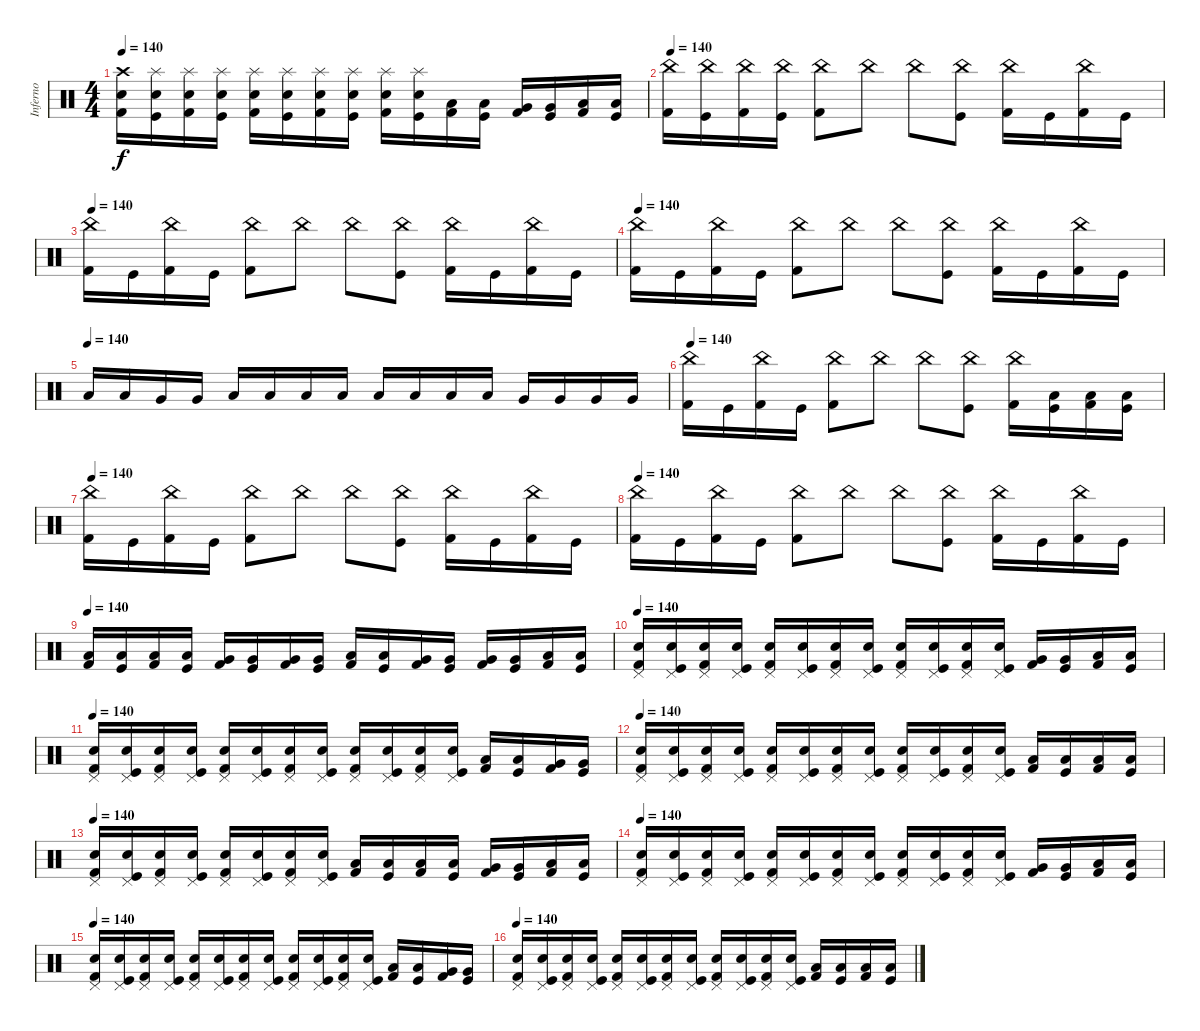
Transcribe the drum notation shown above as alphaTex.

\track ("Inferno" "Inferno") {instrument percussion}
\staff {score}
\articulation defaults
\ts (4 4)
\tempo 140
\clef neutral
\ks c
("Crash high (hit)" "Electric Snare (hit)" "Kick (hit) 2").16{dy f} ("Splash (hit)" "Electric Snare (hit)" "Kick (hit)").16 ("Splash (hit)" "Electric Snare (hit)" "Kick (hit) 2").16 ("Splash (hit)" "Electric Snare (hit)" "Kick (hit)").16 ("Splash (hit)" "Electric Snare (hit)" "Kick (hit) 2").16 ("Splash (hit)" "Electric Snare (hit)" "Kick (hit)").16 ("Splash (hit)" "Electric Snare (hit)" "Kick (hit) 2").16 ("Splash (hit)" "Electric Snare (hit)" "Kick (hit)").16 ("Splash (hit)" "Electric Snare (hit)" "Kick (hit) 2").16 ("Splash (hit)" "Electric Snare (hit)" "Kick (hit)").16 ("Low Tom (hit)" "Kick (hit) 2").16 ("Low Tom (hit)" "Kick (hit)").16 ("Very Low Tom (hit)" "Kick (hit) 2").16 ("Very Low Tom (hit)" "Kick (hit)").16 ("Low Floor Tom (hit)" "Kick (hit) 2").16 ("Low Floor Tom (hit)" "Kick (hit)").16 |
\tempo 140
("China (hit)" "Kick (hit) 2").16 ("China (hit)" "Kick (hit)").16 ("China (hit)" "Kick (hit) 2").16 ("China (hit)" "Kick (hit)").16 ("China (hit)" "Kick (hit) 2").8 "China (hit)".8 "China (hit)".8 ("China (hit)" "Kick (hit)").8 ("China (hit)" "Kick (hit) 2").16 "Kick (hit)".16 ("China (hit)" "Kick (hit) 2").16 "Kick (hit)".16 |
\tempo 140
("China (hit)" "Kick (hit) 2").16 "Kick (hit)".16 ("China (hit)" "Kick (hit) 2").16 "Kick (hit)".16 ("China (hit)" "Kick (hit) 2").8 "China (hit)".8 "China (hit)".8 ("China (hit)" "Kick (hit)").8 ("China (hit)" "Kick (hit) 2").16 "Kick (hit)".16 ("China (hit)" "Kick (hit) 2").16 "Kick (hit)".16 |
\tempo 140
("China (hit)" "Kick (hit) 2").16 "Kick (hit)".16 ("China (hit)" "Kick (hit) 2").16 "Kick (hit)".16 ("China (hit)" "Kick (hit) 2").8 "China (hit)".8 "China (hit)".8 ("China (hit)" "Kick (hit)").8 ("China (hit)" "Kick (hit) 2").16 "Kick (hit)".16 ("China (hit)" "Kick (hit) 2").16 "Kick (hit)".16 |
\tempo (140)
"Low Tom (hit)".16 "Low Tom (hit)".16 "Very Low Tom (hit)".16 "Very Low Tom (hit)".16 "Low Floor Tom (hit)".16 "Low Floor Tom (hit)".16 "Low Floor Tom (hit)".16 "Low Floor Tom (hit)".16 "Low Tom (hit)".16 "Low Tom (hit)".16 "Low Tom (hit)".16 "Low Tom (hit)".16 "Very Low Tom (hit)".16 "Very Low Tom (hit)".16 "Very Low Tom (hit)".16 "Very Low Tom (hit)".16 |
\tempo 140
("China (hit)" "Kick (hit) 2").16 "Kick (hit)".16 ("China (hit)" "Kick (hit) 2").16 "Kick (hit)".16 ("China (hit)" "Kick (hit) 2").8 "China (hit)".8 "China (hit)".8 ("China (hit)" "Kick (hit)").8 ("China (hit)" "Kick (hit) 2").16 ("Low Tom (hit)" "Kick (hit)").16 ("Low Tom (hit)" "Kick (hit) 2").16 ("Low Tom (hit)" "Kick (hit)").16 |
\tempo 140
("China (hit)" "Kick (hit) 2").16 "Kick (hit)".16 ("China (hit)" "Kick (hit) 2").16 "Kick (hit)".16 ("China (hit)" "Kick (hit) 2").8 "China (hit)".8 "China (hit)".8 ("China (hit)" "Kick (hit)").8 ("China (hit)" "Kick (hit) 2").16 "Kick (hit)".16 ("China (hit)" "Kick (hit) 2").16 "Kick (hit)".16 |
\tempo 140
("China (hit)" "Kick (hit) 2").16 "Kick (hit)".16 ("China (hit)" "Kick (hit) 2").16 "Kick (hit)".16 ("China (hit)" "Kick (hit) 2").8 "China (hit)".8 "China (hit)".8 ("China (hit)" "Kick (hit)").8 ("China (hit)" "Kick (hit) 2").16 "Kick (hit)".16 ("China (hit)" "Kick (hit) 2").16 "Kick (hit)".16 |
\tempo 140
("Low Tom (hit)" "Kick (hit) 2").16 ("Low Tom (hit)" "Kick (hit)").16 ("Low Tom (hit)" "Kick (hit) 2").16 ("Low Tom (hit)" "Kick (hit)").16 ("Very Low Tom (hit)" "Kick (hit) 2").16 ("Very Low Tom (hit)" "Kick (hit)").16 ("Very Low Tom (hit)" "Kick (hit) 2").16 ("Very Low Tom (hit)" "Kick (hit)").16 ("Low Tom (hit)" "Kick (hit) 2").16 ("Low Tom (hit)" "Kick (hit)").16 ("Very Low Tom (hit)" "Kick (hit) 2").16 ("Very Low Tom (hit)" "Kick (hit)").16 ("Very Low Tom (hit)" "Kick (hit) 2").16 ("Very Low Tom (hit)" "Kick (hit)").16 ("Low Floor Tom (hit)" "Kick (hit) 2").16 ("Low Floor Tom (hit)" "Kick (hit)").16 |
\tempo 140
("Pedal Hi-Hat (hit)" "Electric Snare (hit)" "Kick (hit) 2").16 ("Pedal Hi-Hat (hit)" "Electric Snare (hit)" "Kick (hit)").16 ("Pedal Hi-Hat (hit)" "Electric Snare (hit)" "Kick (hit) 2").16 ("Pedal Hi-Hat (hit)" "Electric Snare (hit)" "Kick (hit)").16 ("Pedal Hi-Hat (hit)" "Electric Snare (hit)" "Kick (hit) 2").16 ("Pedal Hi-Hat (hit)" "Electric Snare (hit)" "Kick (hit)").16 ("Pedal Hi-Hat (hit)" "Electric Snare (hit)" "Kick (hit) 2").16 ("Pedal Hi-Hat (hit)" "Electric Snare (hit)" "Kick (hit)").16 ("Pedal Hi-Hat (hit)" "Electric Snare (hit)" "Kick (hit) 2").16 ("Pedal Hi-Hat (hit)" "Electric Snare (hit)" "Kick (hit)").16 ("Pedal Hi-Hat (hit)" "Electric Snare (hit)" "Kick (hit) 2").16 ("Pedal Hi-Hat (hit)" "Electric Snare (hit)" "Kick (hit)").16 ("Very Low Tom (hit)" "Kick (hit) 2").16 ("Very Low Tom (hit)" "Kick (hit)").16 ("Low Floor Tom (hit)" "Kick (hit) 2").16 ("Low Floor Tom (hit)" "Kick (hit)").16 |
\tempo 140
("Pedal Hi-Hat (hit)" "Electric Snare (hit)" "Kick (hit) 2").16 ("Pedal Hi-Hat (hit)" "Electric Snare (hit)" "Kick (hit)").16 ("Pedal Hi-Hat (hit)" "Electric Snare (hit)" "Kick (hit) 2").16 ("Pedal Hi-Hat (hit)" "Electric Snare (hit)" "Kick (hit)").16 ("Pedal Hi-Hat (hit)" "Electric Snare (hit)" "Kick (hit) 2").16 ("Pedal Hi-Hat (hit)" "Electric Snare (hit)" "Kick (hit)").16 ("Pedal Hi-Hat (hit)" "Electric Snare (hit)" "Kick (hit) 2").16 ("Pedal Hi-Hat (hit)" "Electric Snare (hit)" "Kick (hit)").16 ("Pedal Hi-Hat (hit)" "Electric Snare (hit)" "Kick (hit) 2").16 ("Pedal Hi-Hat (hit)" "Electric Snare (hit)" "Kick (hit)").16 ("Pedal Hi-Hat (hit)" "Electric Snare (hit)" "Kick (hit) 2").16 ("Pedal Hi-Hat (hit)" "Electric Snare (hit)" "Kick (hit)").16 ("Low Tom (hit)" "Kick (hit) 2").16 ("Low Tom (hit)" "Kick (hit)").16 ("Very Low Tom (hit)" "Kick (hit) 2").16 ("Very Low Tom (hit)" "Kick (hit)").16 |
\tempo 140
("Pedal Hi-Hat (hit)" "Electric Snare (hit)" "Kick (hit) 2").16 ("Pedal Hi-Hat (hit)" "Electric Snare (hit)" "Kick (hit)").16 ("Pedal Hi-Hat (hit)" "Electric Snare (hit)" "Kick (hit) 2").16 ("Pedal Hi-Hat (hit)" "Electric Snare (hit)" "Kick (hit)").16 ("Pedal Hi-Hat (hit)" "Electric Snare (hit)" "Kick (hit) 2").16 ("Pedal Hi-Hat (hit)" "Electric Snare (hit)" "Kick (hit)").16 ("Pedal Hi-Hat (hit)" "Electric Snare (hit)" "Kick (hit) 2").16 ("Pedal Hi-Hat (hit)" "Electric Snare (hit)" "Kick (hit)").16 ("Pedal Hi-Hat (hit)" "Electric Snare (hit)" "Kick (hit) 2").16 ("Pedal Hi-Hat (hit)" "Electric Snare (hit)" "Kick (hit)").16 ("Pedal Hi-Hat (hit)" "Electric Snare (hit)" "Kick (hit) 2").16 ("Pedal Hi-Hat (hit)" "Electric Snare (hit)" "Kick (hit)").16 ("Low Tom (hit)" "Kick (hit) 2").16 ("Low Tom (hit)" "Kick (hit)").16 ("Low Tom (hit)" "Kick (hit) 2").16 ("Low Tom (hit)" "Kick (hit)").16 |
\tempo 140
("Pedal Hi-Hat (hit)" "Electric Snare (hit)" "Kick (hit) 2").16 ("Pedal Hi-Hat (hit)" "Electric Snare (hit)" "Kick (hit)").16 ("Pedal Hi-Hat (hit)" "Electric Snare (hit)" "Kick (hit) 2").16 ("Pedal Hi-Hat (hit)" "Electric Snare (hit)" "Kick (hit)").16 ("Pedal Hi-Hat (hit)" "Electric Snare (hit)" "Kick (hit) 2").16 ("Pedal Hi-Hat (hit)" "Electric Snare (hit)" "Kick (hit)").16 ("Pedal Hi-Hat (hit)" "Electric Snare (hit)" "Kick (hit) 2").16 ("Pedal Hi-Hat (hit)" "Electric Snare (hit)" "Kick (hit)").16 ("Low Tom (hit)" "Kick (hit) 2").16 ("Low Tom (hit)" "Kick (hit)").16 ("Low Tom (hit)" "Kick (hit) 2").16 ("Low Tom (hit)" "Kick (hit)").16 ("Very Low Tom (hit)" "Kick (hit) 2").16 ("Very Low Tom (hit)" "Kick (hit)").16 ("Low Floor Tom (hit)" "Kick (hit) 2").16 ("Low Floor Tom (hit)" "Kick (hit)").16 |
\tempo 140
("Pedal Hi-Hat (hit)" "Electric Snare (hit)" "Kick (hit) 2").16 ("Pedal Hi-Hat (hit)" "Electric Snare (hit)" "Kick (hit)").16 ("Pedal Hi-Hat (hit)" "Electric Snare (hit)" "Kick (hit) 2").16 ("Pedal Hi-Hat (hit)" "Electric Snare (hit)" "Kick (hit)").16 ("Pedal Hi-Hat (hit)" "Electric Snare (hit)" "Kick (hit) 2").16 ("Pedal Hi-Hat (hit)" "Electric Snare (hit)" "Kick (hit)").16 ("Pedal Hi-Hat (hit)" "Electric Snare (hit)" "Kick (hit) 2").16 ("Pedal Hi-Hat (hit)" "Electric Snare (hit)" "Kick (hit)").16 ("Pedal Hi-Hat (hit)" "Electric Snare (hit)" "Kick (hit) 2").16 ("Pedal Hi-Hat (hit)" "Electric Snare (hit)" "Kick (hit)").16 ("Pedal Hi-Hat (hit)" "Electric Snare (hit)" "Kick (hit) 2").16 ("Pedal Hi-Hat (hit)" "Electric Snare (hit)" "Kick (hit)").16 ("Very Low Tom (hit)" "Kick (hit) 2").16 ("Very Low Tom (hit)" "Kick (hit)").16 ("Low Floor Tom (hit)" "Kick (hit) 2").16 ("Low Floor Tom (hit)" "Kick (hit)").16 |
\tempo 140
("Pedal Hi-Hat (hit)" "Electric Snare (hit)" "Kick (hit) 2").16 ("Pedal Hi-Hat (hit)" "Electric Snare (hit)" "Kick (hit)").16 ("Pedal Hi-Hat (hit)" "Electric Snare (hit)" "Kick (hit) 2").16 ("Pedal Hi-Hat (hit)" "Electric Snare (hit)" "Kick (hit)").16 ("Pedal Hi-Hat (hit)" "Electric Snare (hit)" "Kick (hit) 2").16 ("Pedal Hi-Hat (hit)" "Electric Snare (hit)" "Kick (hit)").16 ("Pedal Hi-Hat (hit)" "Electric Snare (hit)" "Kick (hit) 2").16 ("Pedal Hi-Hat (hit)" "Electric Snare (hit)" "Kick (hit)").16 ("Pedal Hi-Hat (hit)" "Electric Snare (hit)" "Kick (hit) 2").16 ("Pedal Hi-Hat (hit)" "Electric Snare (hit)" "Kick (hit)").16 ("Pedal Hi-Hat (hit)" "Electric Snare (hit)" "Kick (hit) 2").16 ("Pedal Hi-Hat (hit)" "Electric Snare (hit)" "Kick (hit)").16 ("Low Tom (hit)" "Kick (hit) 2").16 ("Low Tom (hit)" "Kick (hit)").16 ("Very Low Tom (hit)" "Kick (hit) 2").16 ("Very Low Tom (hit)" "Kick (hit)").16 |
\tempo 140
("Pedal Hi-Hat (hit)" "Electric Snare (hit)" "Kick (hit) 2").16 ("Pedal Hi-Hat (hit)" "Electric Snare (hit)" "Kick (hit)").16 ("Pedal Hi-Hat (hit)" "Electric Snare (hit)" "Kick (hit) 2").16 ("Pedal Hi-Hat (hit)" "Electric Snare (hit)" "Kick (hit)").16 ("Pedal Hi-Hat (hit)" "Electric Snare (hit)" "Kick (hit) 2").16 ("Pedal Hi-Hat (hit)" "Electric Snare (hit)" "Kick (hit)").16 ("Pedal Hi-Hat (hit)" "Electric Snare (hit)" "Kick (hit) 2").16 ("Pedal Hi-Hat (hit)" "Electric Snare (hit)" "Kick (hit)").16 ("Pedal Hi-Hat (hit)" "Electric Snare (hit)" "Kick (hit) 2").16 ("Pedal Hi-Hat (hit)" "Electric Snare (hit)" "Kick (hit)").16 ("Pedal Hi-Hat (hit)" "Electric Snare (hit)" "Kick (hit) 2").16 ("Pedal Hi-Hat (hit)" "Electric Snare (hit)" "Kick (hit)").16 ("Low Tom (hit)" "Kick (hit) 2").16 ("Low Tom (hit)" "Kick (hit)").16 ("Low Tom (hit)" "Kick (hit) 2").16 ("Low Tom (hit)" "Kick (hit)").16
